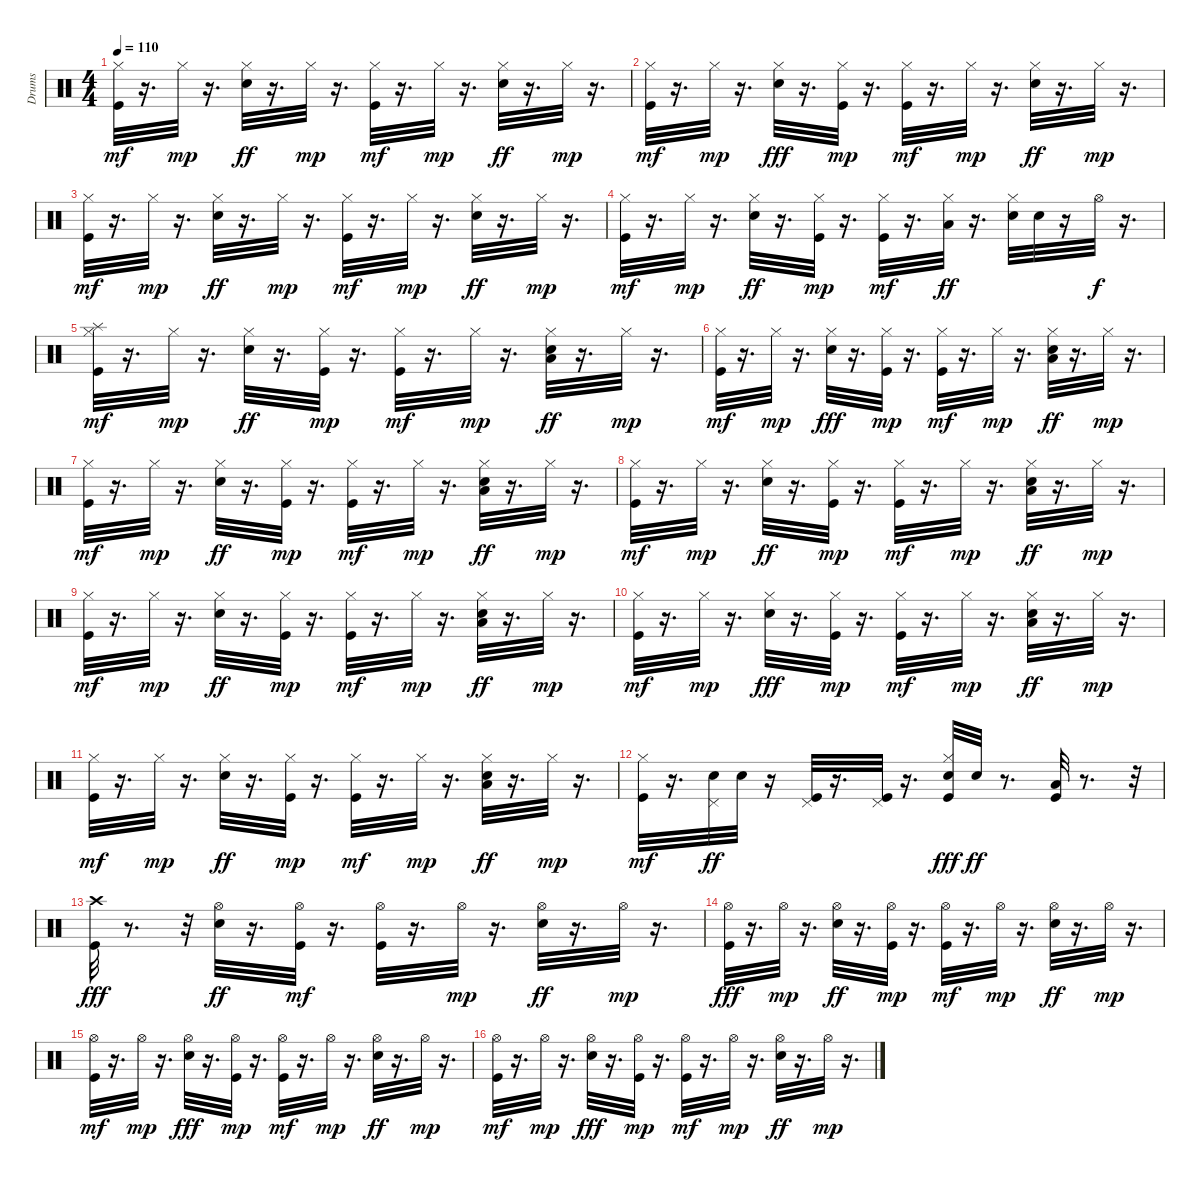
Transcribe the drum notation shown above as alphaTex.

\track ("Drums" "Drums") {instrument percussion}
\staff {score}
\articulation defaults
\ts (4 4)
\tempo 110
\clef neutral
\ks c
("Kick (hit)" "Hi-Hat (closed)").32{dy mf} r.16{d} "Hi-Hat (closed)".32{dy mp} r.16{d} ("Electric Snare (hit)" "Hi-Hat (closed)").32{dy ff} r.16{d} "Hi-Hat (closed)".32{dy mp} r.16{d} ("Kick (hit)" "Hi-Hat (closed)").32{dy mf} r.16{d} "Hi-Hat (closed)".32{dy mp} r.16{d} ("Electric Snare (hit)" "Hi-Hat (closed)").32{dy ff} r.16{d} "Hi-Hat (closed)".32{dy mp} r.16{d} |
("Kick (hit)" "Hi-Hat (closed)").32{dy mf} r.16{d} "Hi-Hat (closed)".32{dy mp} r.16{d} ("Electric Snare (hit)" "Hi-Hat (closed)").32{dy fff} r.16{d} ("Kick (hit)" "Hi-Hat (closed)").32{dy mp} r.16{d} ("Kick (hit)" "Hi-Hat (closed)").32{dy mf} r.16{d} "Hi-Hat (closed)".32{dy mp} r.16{d} ("Electric Snare (hit)" "Hi-Hat (closed)").32{dy ff} r.16{d} "Hi-Hat (closed)".32{dy mp} r.16{d} |
("Kick (hit)" "Hi-Hat (closed)").32{dy mf} r.16{d} "Hi-Hat (closed)".32{dy mp} r.16{d} ("Electric Snare (hit)" "Hi-Hat (closed)").32{dy ff} r.16{d} "Hi-Hat (closed)".32{dy mp} r.16{d} ("Kick (hit)" "Hi-Hat (closed)").32{dy mf} r.16{d} "Hi-Hat (closed)".32{dy mp} r.16{d} ("Electric Snare (hit)" "Hi-Hat (closed)").32{dy ff} r.16{d} "Hi-Hat (closed)".32{dy mp} r.16{d} |
("Kick (hit)" "Hi-Hat (closed)").32{dy mf} r.16{d} "Hi-Hat (closed)".32{dy mp} r.16{d} ("Electric Snare (hit)" "Hi-Hat (closed)").32{dy ff} r.16{d} ("Kick (hit)" "Hi-Hat (closed)").32{dy mp} r.16{d} ("Kick (hit)" "Hi-Hat (closed)").32{dy mf} r.16{d} ("Hi-Hat (closed)" "Low Tom (hit)").32{dy ff} r.16{d} ("Electric Snare (hit)" "Hi-Hat (closed)").32 "Electric Snare (hit)".32 r.16 "Hi-Hat (open)".32{dy f} r.16{d} |
("Kick (hit)" "Hi-Hat (closed)" "Splash (hit)").32{dy mf} r.16{d} "Hi-Hat (closed)".32{dy mp} r.16{d} ("Electric Snare (hit)" "Hi-Hat (closed)").32{dy ff} r.16{d} ("Kick (hit)" "Hi-Hat (closed)").32{dy mp} r.16{d} ("Kick (hit)" "Hi-Hat (closed)").32{dy mf} r.16{d} "Hi-Hat (closed)".32{dy mp} r.16{d} ("Low Floor Tom (hit)" "Electric Snare (hit)" "Hi-Hat (closed)").32{dy ff} r.16{d} "Hi-Hat (closed)".32{dy mp} r.16{d} |
("Kick (hit)" "Hi-Hat (closed)").32{dy mf} r.16{d} "Hi-Hat (closed)".32{dy mp} r.16{d} ("Electric Snare (hit)" "Hi-Hat (closed)").32{dy fff} r.16{d} ("Kick (hit)" "Hi-Hat (closed)").32{dy mp} r.16{d} ("Kick (hit)" "Hi-Hat (closed)").32{dy mf} r.16{d} "Hi-Hat (closed)".32{dy mp} r.16{d} ("Electric Snare (hit)" "Hi-Hat (closed)" "Low Floor Tom (hit)").32{dy ff} r.16{d} "Hi-Hat (closed)".32{dy mp} r.16{d} |
("Kick (hit)" "Hi-Hat (closed)").32{dy mf} r.16{d} "Hi-Hat (closed)".32{dy mp} r.16{d} ("Electric Snare (hit)" "Hi-Hat (closed)").32{dy ff} r.16{d} ("Kick (hit)" "Hi-Hat (closed)").32{dy mp} r.16{d} ("Kick (hit)" "Hi-Hat (closed)").32{dy mf} r.16{d} "Hi-Hat (closed)".32{dy mp} r.16{d} ("Low Floor Tom (hit)" "Electric Snare (hit)" "Hi-Hat (closed)").32{dy ff} r.16{d} "Hi-Hat (closed)".32{dy mp} r.16{d} |
("Kick (hit)" "Hi-Hat (closed)").32{dy mf} r.16{d} "Hi-Hat (closed)".32{dy mp} r.16{d} ("Electric Snare (hit)" "Hi-Hat (closed)").32{dy ff} r.16{d} ("Kick (hit)" "Hi-Hat (closed)").32{dy mp} r.16{d} ("Kick (hit)" "Hi-Hat (closed)").32{dy mf} r.16{d} "Hi-Hat (closed)".32{dy mp} r.16{d} ("Electric Snare (hit)" "Hi-Hat (closed)" "Low Floor Tom (hit)").32{dy ff} r.16{d} "Hi-Hat (closed)".32{dy mp} r.16{d} |
("Kick (hit)" "Hi-Hat (closed)").32{dy mf} r.16{d} "Hi-Hat (closed)".32{dy mp} r.16{d} ("Electric Snare (hit)" "Hi-Hat (closed)").32{dy ff} r.16{d} ("Kick (hit)" "Hi-Hat (closed)").32{dy mp} r.16{d} ("Kick (hit)" "Hi-Hat (closed)").32{dy mf} r.16{d} "Hi-Hat (closed)".32{dy mp} r.16{d} ("Electric Snare (hit)" "Hi-Hat (closed)" "Low Floor Tom (hit)").32{dy ff} r.16{d} "Hi-Hat (closed)".32{dy mp} r.16{d} |
("Kick (hit)" "Hi-Hat (closed)").32{dy mf} r.16{d} "Hi-Hat (closed)".32{dy mp} r.16{d} ("Electric Snare (hit)" "Hi-Hat (closed)").32{dy fff} r.16{d} ("Kick (hit)" "Hi-Hat (closed)").32{dy mp} r.16{d} ("Kick (hit)" "Hi-Hat (closed)").32{dy mf} r.16{d} "Hi-Hat (closed)".32{dy mp} r.16{d} ("Electric Snare (hit)" "Hi-Hat (closed)" "Low Floor Tom (hit)").32{dy ff} r.16{d} "Hi-Hat (closed)".32{dy mp} r.16{d} |
("Kick (hit)" "Hi-Hat (closed)").32{dy mf} r.16{d} "Hi-Hat (closed)".32{dy mp} r.16{d} ("Electric Snare (hit)" "Hi-Hat (closed)").32{dy ff} r.16{d} ("Kick (hit)" "Hi-Hat (closed)").32{dy mp} r.16{d} ("Kick (hit)" "Hi-Hat (closed)").32{dy mf} r.16{d} "Hi-Hat (closed)".32{dy mp} r.16{d} ("Electric Snare (hit)" "Hi-Hat (closed)" "Low Floor Tom (hit)").32{dy ff} r.16{d} "Hi-Hat (closed)".32{dy mp} r.16{d} |
("Kick (hit)" "Hi-Hat (closed)").32{dy mf} r.16{d} ("Pedal Hi-Hat (hit)" "Electric Snare (hit)").32{dy ff} "Electric Snare (hit)".32 r.16 ("Pedal Hi-Hat (hit)" "Kick (hit)").32 r.16{d} ("Kick (hit)" "Pedal Hi-Hat (hit)").32 r.16{d} ("Kick (hit)" "Hi-Hat (closed)" "Electric Snare (hit)").32{dy fff} "Electric Snare (hit)".32{dy ff} r.8{d} ("Low Floor Tom (hit)" "Kick (hit)").32 r.8{d} r.32 |
("Kick (hit)" "Crash high (hit)").32{dy fff} r.8{d} r.32 ("Electric Snare (hit)" "Hi-Hat (open)").32{dy ff} r.16{d} ("Kick (hit)" "Hi-Hat (open)").32{dy mf} r.16{d} ("Kick (hit)" "Hi-Hat (open)").32 r.16{d} "Hi-Hat (open)".32{dy mp} r.16{d} ("Electric Snare (hit)" "Hi-Hat (open)").32{dy ff} r.16{d} "Hi-Hat (open)".32{dy mp} r.16{d} |
("Kick (hit)" "Hi-Hat (open)").32{dy fff} r.16{d} "Hi-Hat (open)".32{dy mp} r.16{d} ("Electric Snare (hit)" "Hi-Hat (open)").32{dy ff} r.16{d} ("Kick (hit)" "Hi-Hat (open)").32{dy mp} r.16{d} ("Kick (hit)" "Hi-Hat (open)").32{dy mf} r.16{d} "Hi-Hat (open)".32{dy mp} r.16{d} ("Electric Snare (hit)" "Hi-Hat (open)").32{dy ff} r.16{d} "Hi-Hat (open)".32{dy mp} r.16{d} |
("Kick (hit)" "Hi-Hat (open)").32{dy mf} r.16{d} "Hi-Hat (open)".32{dy mp} r.16{d} ("Electric Snare (hit)" "Hi-Hat (open)").32{dy fff} r.16{d} ("Kick (hit)" "Hi-Hat (open)").32{dy mp} r.16{d} ("Kick (hit)" "Hi-Hat (open)").32{dy mf} r.16{d} "Hi-Hat (open)".32{dy mp} r.16{d} ("Electric Snare (hit)" "Hi-Hat (open)").32{dy ff} r.16{d} "Hi-Hat (open)".32{dy mp} r.16{d} |
("Kick (hit)" "Hi-Hat (open)").32{dy mf} r.16{d} "Hi-Hat (open)".32{dy mp} r.16{d} ("Electric Snare (hit)" "Hi-Hat (open)").32{dy fff} r.16{d} ("Kick (hit)" "Hi-Hat (open)").32{dy mp} r.16{d} ("Kick (hit)" "Hi-Hat (open)").32{dy mf} r.16{d} "Hi-Hat (open)".32{dy mp} r.16{d} ("Electric Snare (hit)" "Hi-Hat (open)").32{dy ff} r.16{d} "Hi-Hat (open)".32{dy mp} r.16{d}
